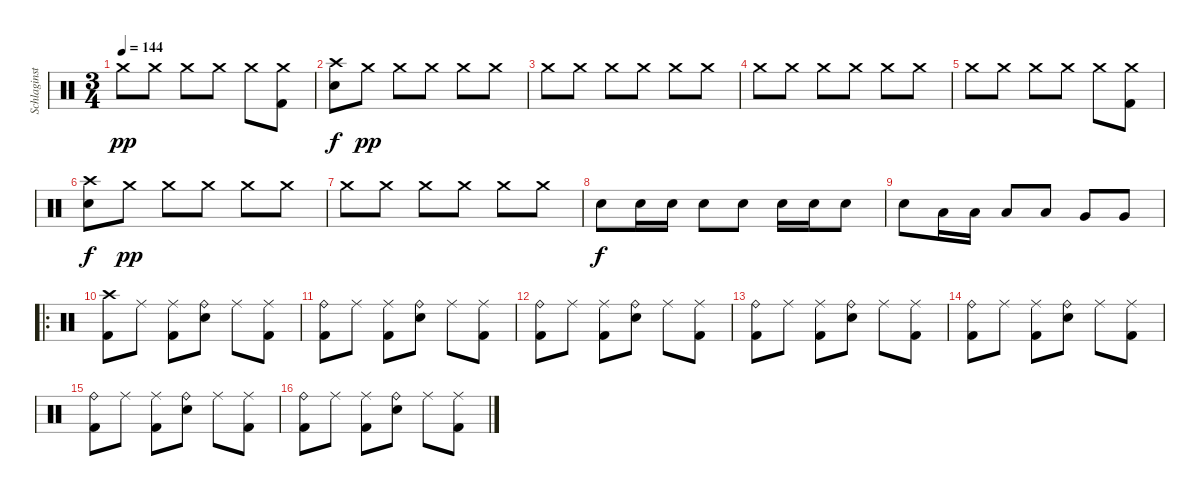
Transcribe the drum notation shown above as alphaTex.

\track ("Schlaginstrumente - Auswahl" "Schlaginst") {instrument percussion}
\staff {score}
\articulation defaults
\ts (3 4)
\tempo 144
\clef neutral
\ks c "Crash medium (hit)".8{dy pp} "Crash medium (hit)".8 "Crash medium (hit)".8 "Crash medium (hit)".8 "Crash medium (hit)".8
("Crash medium (hit)" "Kick (hit) 2").8 |
("Crash high (hit)" "Snare (hit) 2").8{dy f} "Crash medium (hit)".8{dy pp} "Crash medium (hit)".8 "Crash medium (hit)".8 "Crash medium (hit)".8 "Crash medium (hit)".8 |
"Crash medium (hit)".8 "Crash medium (hit)".8 "Crash medium (hit)".8 "Crash medium (hit)".8 "Crash medium (hit)".8 "Crash medium (hit)".8 |
"Crash medium (hit)".8 "Crash medium (hit)".8 "Crash medium (hit)".8 "Crash medium (hit)".8 "Crash medium (hit)".8 "Crash medium (hit)".8 |
"Crash medium (hit)".8 "Crash medium (hit)".8 "Crash medium (hit)".8 "Crash medium (hit)".8 "Crash medium (hit)".8 ("Crash medium (hit)" "Kick (hit) 2").8 |
("Crash high (hit)" "Snare (hit) 2").8{dy f} "Crash medium (hit)".8{dy pp} "Crash medium (hit)".8 "Crash medium (hit)".8 "Crash medium (hit)".8 "Crash medium (hit)".8 |
"Crash medium (hit)".8 "Crash medium (hit)".8 "Crash medium (hit)".8 "Crash medium (hit)".8 "Crash medium (hit)".8 "Crash medium (hit)".8 |
"Snare (hit) 2".8{dy f} "Snare (hit) 2".16 "Snare (hit) 2".16 "Snare (hit) 2".8 "Snare (hit) 2".8 "Snare (hit) 2".16 "Snare (hit) 2".16 "Snare (hit) 2".8 |
"Snare (hit) 2".8 "Low Tom (hit)".16 "Low Tom (hit)".16 "Low Tom (hit)".8 "Low Tom (hit)".8 "Very Low Tom (hit)".8 "Very Low Tom (hit)".8 |
\ro
("Crash high (hit)" "Kick (hit) 2").8 "Ride (middle)".8 ("Ride (middle)" "Kick (hit) 2").8 ("Ride (bell)" "Snare (hit) 2").8 "Ride (middle)".8 ("Ride (middle)" "Kick (hit) 2").8 |
("Ride (bell)" "Kick (hit) 2").8 "Ride (middle)".8 ("Ride (middle)" "Kick (hit) 2").8 ("Ride (bell)" "Snare (hit) 2").8 "Ride (middle)".8 ("Ride (middle)" "Kick (hit) 2").8 |
("Ride (bell)" "Kick (hit) 2").8 "Ride (middle)".8 ("Ride (middle)" "Kick (hit) 2").8 ("Ride (bell)" "Snare (hit) 2").8 "Ride (middle)".8 ("Ride (middle)" "Kick (hit) 2").8 |
("Ride (bell)" "Kick (hit) 2").8 "Ride (middle)".8 ("Ride (middle)" "Kick (hit) 2").8 ("Ride (bell)" "Snare (hit) 2").8 "Ride (middle)".8 ("Ride (middle)" "Kick (hit) 2").8 |
("Ride (bell)" "Kick (hit) 2").8 "Ride (middle)".8 ("Ride (middle)" "Kick (hit) 2").8 ("Ride (bell)" "Snare (hit) 2").8 "Ride (middle)".8 ("Ride (middle)" "Kick (hit) 2").8 |
("Ride (bell)" "Kick (hit) 2").8 "Ride (middle)".8 ("Ride (middle)" "Kick (hit) 2").8 ("Ride (bell)" "Snare (hit) 2").8 "Ride (middle)".8 ("Ride (middle)" "Kick (hit) 2").8 |
("Ride (bell)" "Kick (hit) 2").8 "Ride (middle)".8 ("Ride (middle)" "Kick (hit) 2").8 ("Ride (bell)" "Snare (hit) 2").8 "Ride (middle)".8 ("Ride (middle)" "Kick (hit) 2").8
